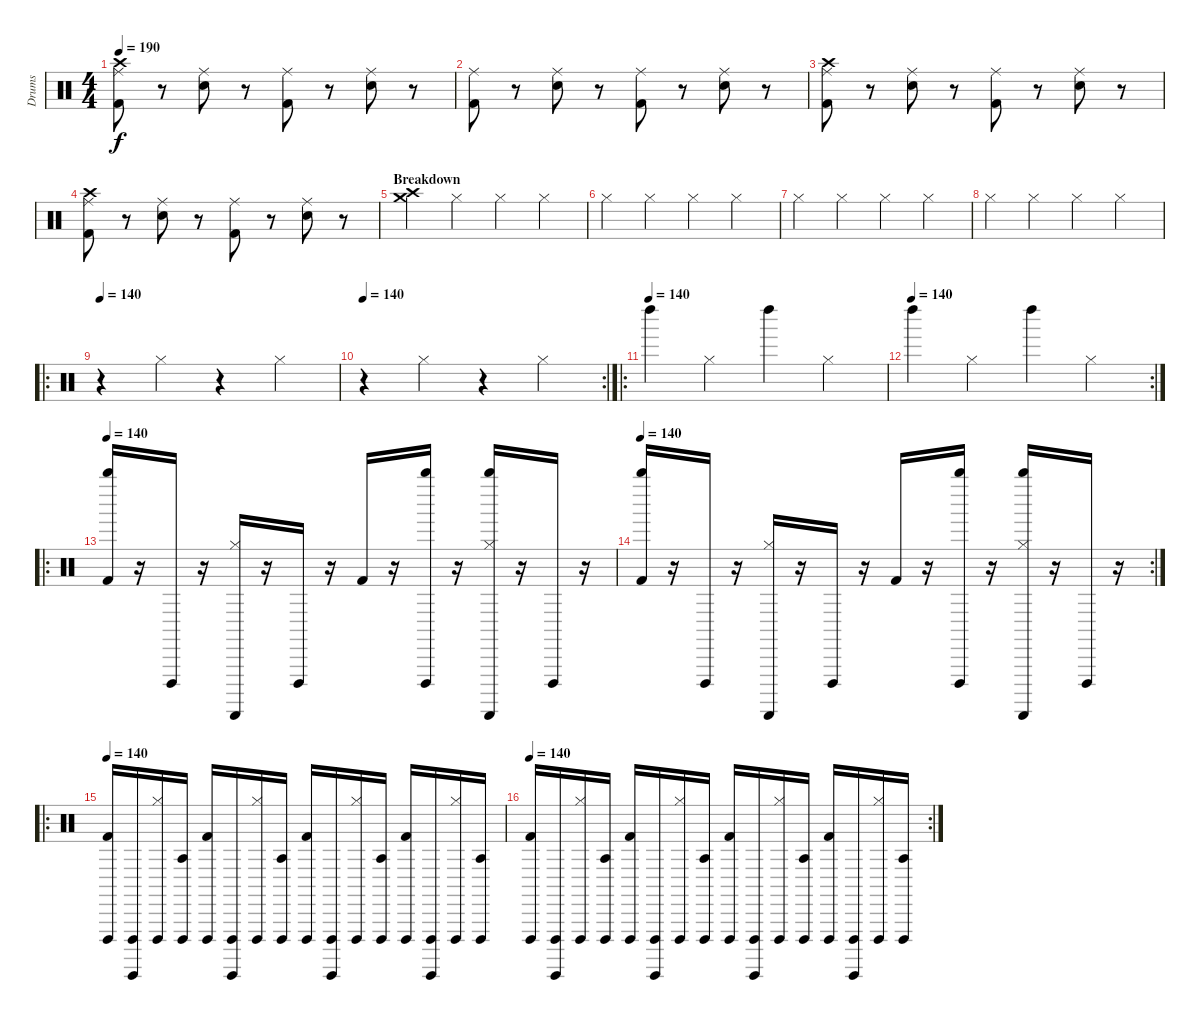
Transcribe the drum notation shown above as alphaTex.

\track ("Drums" "Drums") {instrument percussion}
\staff {score}
\articulation defaults
\ts (4 4)
\tempo 190
\clef neutral
\ks c
("Crash high (hit)" "Ride (middle)" "Kick (hit) 2").8{dy f} r.8 ("Ride (middle)" "Electric Snare (hit)").8 r.8 ("Ride (middle)" "Kick (hit) 2").8 r.8 ("Ride (middle)" "Electric Snare (hit)").8 r.8 |
("Ride (middle)" "Kick (hit) 2").8 r.8 ("Ride (middle)" "Electric Snare (hit)").8 r.8 ("Ride (middle)" "Kick (hit) 2").8 r.8 ("Ride (middle)" "Electric Snare (hit)").8 r.8 |
("Crash high (hit)" "Ride (middle)" "Kick (hit) 2").8 r.8 ("Ride (middle)" "Electric Snare (hit)").8 r.8 ("Ride (middle)" "Kick (hit) 2").8 r.8 ("Ride (middle)" "Electric Snare (hit)").8 r.8 |
("Crash high (hit)" "Ride (middle)" "Kick (hit) 2").8 r.8 ("Ride (middle)" "Electric Snare (hit)").8 r.8 ("Ride (middle)" "Kick (hit) 2").8 r.8 ("Ride (middle)" "Electric Snare (hit)").8 r.8 |
\section ("" "Breakdown")
("Crash medium (hit)" "Crash high (hit)").4 "Hi-Hat (closed)".4 "Hi-Hat (closed)".4 "Hi-Hat (closed)".4 |
"Hi-Hat (closed)".4 "Hi-Hat (closed)".4 "Hi-Hat (closed)".4 "Hi-Hat (closed)".4 |
"Hi-Hat (closed)".4 "Hi-Hat (closed)".4 "Hi-Hat (closed)".4 "Hi-Hat (closed)".4 |
"Hi-Hat (closed)".4 "Hi-Hat (closed)".4 "Hi-Hat (closed)".4 "Hi-Hat (closed)".4 |
\ro
\tempo 140
r.4 "Hi-Hat (closed)".4 r.4 "Hi-Hat (closed)".4 |
\rc 2
\tempo 140
r.4 "Hi-Hat (closed)".4 r.4 "Hi-Hat (closed)".4 |
\ro
\tempo (140)
"Left Maraca (hit)".4 "Hi-Hat (closed)".4 "Left Maraca (hit)".4 "Hi-Hat (closed)".4 |
\rc 2
\tempo (140)
"Left Maraca (hit)".4 "Hi-Hat (closed)".4 "Left Maraca (hit)".4 "Hi-Hat (closed)".4 |
\ro
\tempo 140
("Whistle high (hit)" "Kick (hit) 2").16 r.16 "Cuica (open)".16 r.16 ("Guiro (scrap-return)" "Hi-Hat (closed)").16 r.16 "Cuica (open)".16 r.16 "Kick (hit) 2".16 r.16 ("Cuica (open)" "Whistle high (hit)").16 r.16 ("Guiro (scrap-return)" "Whistle high (hit)" "Hi-Hat (closed)").16 r.16 "Cuica (open)".16 r.16 |
\rc 2
\tempo 140
("Whistle high (hit)" "Kick (hit) 2").16 r.16 "Cuica (open)".16 r.16 ("Guiro (scrap-return)" "Hi-Hat (closed)").16 r.16 "Cuica (open)".16 r.16 "Kick (hit) 2".16 r.16 ("Cuica (open)" "Whistle high (hit)").16 r.16 ("Guiro (scrap-return)" "Whistle high (hit)" "Hi-Hat (closed)").16 r.16 "Cuica (open)".16 r.16 |
\ro
\tempo 140
("Cuica (open)" "Kick (hit) 2").16 ("Cuica (open)" "Guiro (hit)").16 ("Cuica (open)" "Hi-Hat (closed)").16 ("Cuica (open)" "Agogo tow (hit)").16 ("Cuica (open)" "Kick (hit) 2").16 ("Cuica (open)" "Guiro (hit)").16 ("Cuica (open)" "Hi-Hat (closed)").16 ("Cuica (open)" "Agogo tow (hit)").16 ("Cuica (open)" "Kick (hit) 2").16 ("Cuica (open)" "Guiro (hit)").16 ("Cuica (open)" "Hi-Hat (closed)").16 ("Cuica (open)" "Agogo tow (hit)").16 ("Cuica (open)" "Kick (hit) 2").16 ("Cuica (open)" "Guiro (hit)").16 ("Cuica (open)" "Hi-Hat (closed)").16 ("Cuica (open)" "Agogo tow (hit)").16 |
\rc 2
\tempo 140
("Cuica (open)" "Kick (hit) 2").16 ("Cuica (open)" "Guiro (hit)").16 ("Cuica (open)" "Hi-Hat (closed)").16 ("Cuica (open)" "Agogo tow (hit)").16 ("Cuica (open)" "Kick (hit) 2").16 ("Cuica (open)" "Guiro (hit)").16 ("Cuica (open)" "Hi-Hat (closed)").16 ("Cuica (open)" "Agogo tow (hit)").16 ("Cuica (open)" "Kick (hit) 2").16 ("Cuica (open)" "Guiro (hit)").16 ("Cuica (open)" "Hi-Hat (closed)").16 ("Cuica (open)" "Agogo tow (hit)").16 ("Cuica (open)" "Kick (hit) 2").16 ("Cuica (open)" "Guiro (hit)").16 ("Cuica (open)" "Hi-Hat (closed)").16 ("Cuica (open)" "Agogo tow (hit)").16
